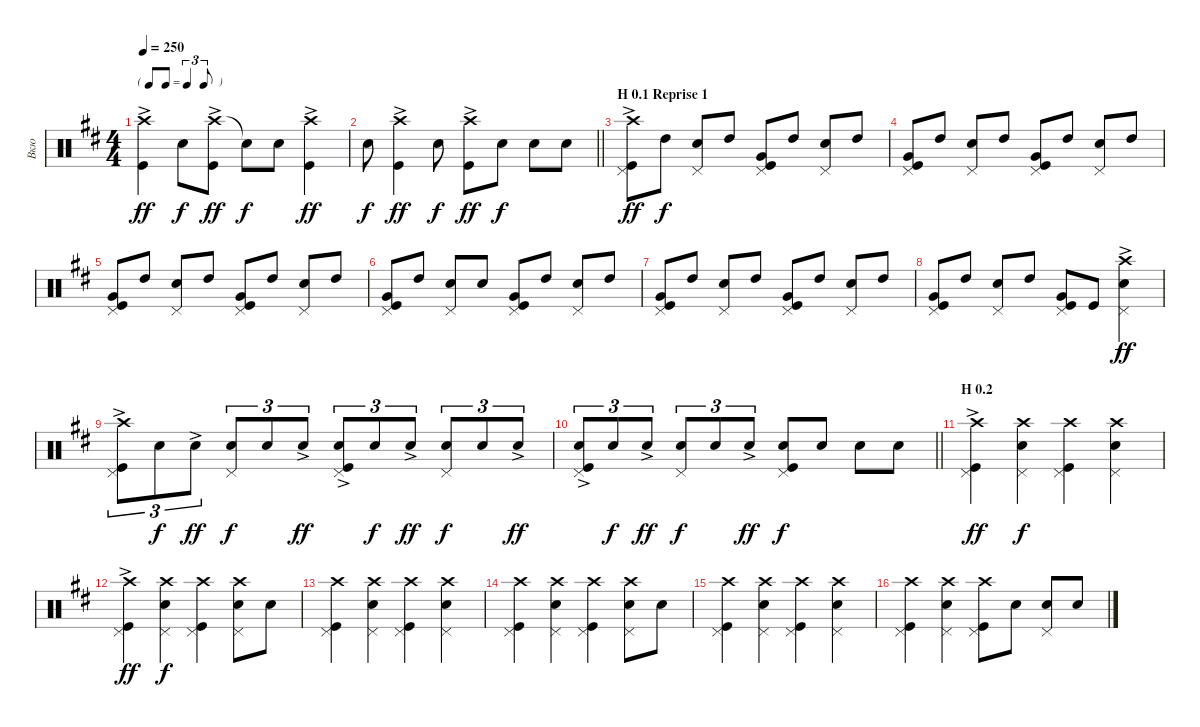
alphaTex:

\track ("Вкю" "Вкю") {instrument percussion}
\staff {score}
\articulation defaults
\ts (4 4)
\tf triplet8th
\tempo 250
\clef neutral
\ks d
("Crash high (hit)"{ac} "Kick (hit)"{ac}).4{dy ff} "Snare (hit) 2".8{dy f} ("Crash high (hit)"{ac} "Kick (hit)"{ac}).8{dy ff} "Snare (hit)"{t}.8{dy f} "Snare (hit) 2".8 ("Crash high (hit)"{ac} "Kick (hit)"{ac}).4{dy ff} |
\barLineRight lightlight "Snare (hit) 2".8{dy f}
("Crash high (hit)"{ac} "Kick (hit)"{ac}).4{dy ff} "Snare (hit) 2".8{dy f} ("Crash high (hit)"{ac} "Kick (hit)"{ac}).8{dy ff} "Snare (hit) 2".8{dy f} "Snare (hit) 2".8 "Snare (hit) 2".8 |
\section ("" "H 0.1 Reprise 1")
("Crash high (hit)"{ac} "Kick (hit)"{ac} "Pedal Hi-Hat (hit)"{ac}).8{dy ff} "High Tom (hit)".8{dy f} ("Snare (hit) 2" "Pedal Hi-Hat (hit)").8 "High Tom (hit)".8 ("Very Low Tom (hit)" "Kick (hit)" "Pedal Hi-Hat (hit)").8 "High Tom (hit)".8 ("Snare (hit) 2" "Pedal Hi-Hat (hit)").8 "High Tom (hit)".8 |
("Very Low Tom (hit)" "Kick (hit)" "Pedal Hi-Hat (hit)").8 "High Tom (hit)".8 ("Snare (hit) 2" "Pedal Hi-Hat (hit)").8 "High Tom (hit)".8 ("Very Low Tom (hit)" "Kick (hit)" "Pedal Hi-Hat (hit)").8 "High Tom (hit)".8 ("Snare (hit) 2" "Pedal Hi-Hat (hit)").8 "High Tom (hit)".8 |
("Very Low Tom (hit)" "Kick (hit)" "Pedal Hi-Hat (hit)").8 "High Tom (hit)".8 ("Snare (hit) 2" "Pedal Hi-Hat (hit)").8 "High Tom (hit)".8 ("Very Low Tom (hit)" "Kick (hit)" "Pedal Hi-Hat (hit)").8 "High Tom (hit)".8 ("Snare (hit) 2" "Pedal Hi-Hat (hit)").8 "High Tom (hit)".8 |
("Very Low Tom (hit)" "Kick (hit)" "Pedal Hi-Hat (hit)").8 "High Tom (hit)".8 ("Snare (hit) 2" "Pedal Hi-Hat (hit)").8 "Snare (hit) 2".8 ("Very Low Tom (hit)" "Kick (hit)" "Pedal Hi-Hat (hit)").8 "High Tom (hit)".8 ("Snare (hit) 2" "Pedal Hi-Hat (hit)").8 "High Tom (hit)".8 |
("Very Low Tom (hit)" "Kick (hit)" "Pedal Hi-Hat (hit)").8 "High Tom (hit)".8 ("Snare (hit) 2" "Pedal Hi-Hat (hit)").8 "High Tom (hit)".8 ("Very Low Tom (hit)" "Kick (hit)" "Pedal Hi-Hat (hit)").8 "High Tom (hit)".8 ("Snare (hit) 2" "Pedal Hi-Hat (hit)").8 "High Tom (hit)".8 |
("Very Low Tom (hit)" "Kick (hit)" "Pedal Hi-Hat (hit)").8 "High Tom (hit)".8 ("Snare (hit) 2" "Pedal Hi-Hat (hit)").8 "High Tom (hit)".8 ("Very Low Tom (hit)" "Kick (hit)" "Pedal Hi-Hat (hit)").8 "Kick (hit)".8 ("Crash high (hit)"{ac} "Snare (hit) 2"{ac} "Pedal Hi-Hat (hit)"{ac}).4{dy ff} |
("Crash high (hit)"{ac} "Kick (hit)"{ac} "Pedal Hi-Hat (hit)").8{tu (3 2)} "Snare (hit) 2".8{tu (3 2) dy f} "Snare (hit) 2"{ac}.8{tu (3 2) dy ff} ("Snare (hit) 2" "Pedal Hi-Hat (hit)").8{tu (3 2) dy f} "Snare (hit) 2".8{tu (3 2)} "Snare (hit) 2"{ac}.8{tu (3 2) dy ff} ("Snare (hit) 2"{ac} "Kick (hit)"{ac} "Pedal Hi-Hat (hit)"{ac}).8{tu (3 2)} "Snare (hit) 2".8{tu (3 2) dy f} "Snare (hit) 2"{ac}.8{tu (3 2) dy ff} ("Snare (hit) 2" "Pedal Hi-Hat (hit)").8{tu (3 2) dy f} "Snare (hit) 2".8{tu (3 2)} "Snare (hit) 2"{ac}.8{tu (3 2) dy ff} |
\barLineRight lightlight
("Snare (hit) 2"{ac} "Kick (hit)"{ac} "Pedal Hi-Hat (hit)"{ac}).8{tu (3 2)} "Snare (hit) 2".8{tu (3 2) dy f} "Snare (hit) 2"{ac}.8{tu (3 2) dy ff} ("Snare (hit) 2" "Pedal Hi-Hat (hit)").8{tu (3 2) dy f} "Snare (hit) 2".8{tu (3 2)} "Snare (hit) 2"{ac}.8{tu (3 2) dy ff} ("Snare (hit) 2" "Kick (hit)" "Pedal Hi-Hat (hit)").8{dy f} "Snare (hit) 2".8 "Snare (hit) 2".8 "Snare (hit) 2".8 |
\section ("" "H 0.2 ")
("Crash high (hit)"{ac} "Kick (hit)"{ac} "Pedal Hi-Hat (hit)"{ac}).4{dy ff} ("Crash high (hit)" "Snare (hit) 2" "Pedal Hi-Hat (hit)").4{dy f} ("Crash high (hit)" "Kick (hit)" "Pedal Hi-Hat (hit)").4 ("Crash high (hit)" "Snare (hit) 2" "Pedal Hi-Hat (hit)").4 |
("Crash high (hit)"{ac} "Kick (hit)"{ac} "Pedal Hi-Hat (hit)"{ac}).4{dy ff} ("Crash high (hit)" "Snare (hit) 2" "Pedal Hi-Hat (hit)").4{dy f} ("Crash high (hit)" "Kick (hit)" "Pedal Hi-Hat (hit)").4 ("Crash high (hit)" "Snare (hit) 2" "Pedal Hi-Hat (hit)").8 "Snare (hit) 2".8 |
("Crash high (hit)" "Kick (hit)" "Pedal Hi-Hat (hit)").4 ("Crash high (hit)" "Snare (hit) 2" "Pedal Hi-Hat (hit)").4 ("Crash high (hit)" "Kick (hit)" "Pedal Hi-Hat (hit)").4 ("Crash high (hit)" "Snare (hit) 2" "Pedal Hi-Hat (hit)").4 |
("Crash high (hit)" "Kick (hit)" "Pedal Hi-Hat (hit)").4 ("Crash high (hit)" "Snare (hit) 2" "Pedal Hi-Hat (hit)").4 ("Crash high (hit)" "Kick (hit)" "Pedal Hi-Hat (hit)").4 ("Crash high (hit)" "Snare (hit) 2" "Pedal Hi-Hat (hit)").8 "Snare (hit) 2".8 |
("Crash high (hit)" "Kick (hit)" "Pedal Hi-Hat (hit)").4 ("Crash high (hit)" "Snare (hit) 2" "Pedal Hi-Hat (hit)").4 ("Crash high (hit)" "Kick (hit)" "Pedal Hi-Hat (hit)").4 ("Crash high (hit)" "Snare (hit) 2" "Pedal Hi-Hat (hit)").4 |
("Crash high (hit)" "Kick (hit)" "Pedal Hi-Hat (hit)").4 ("Crash high (hit)" "Snare (hit) 2" "Pedal Hi-Hat (hit)").4 ("Crash high (hit)" "Kick (hit)" "Pedal Hi-Hat (hit)").8 "Snare (hit) 2".8 ("Snare (hit) 2" "Pedal Hi-Hat (hit)").8 "Snare (hit) 2".8
